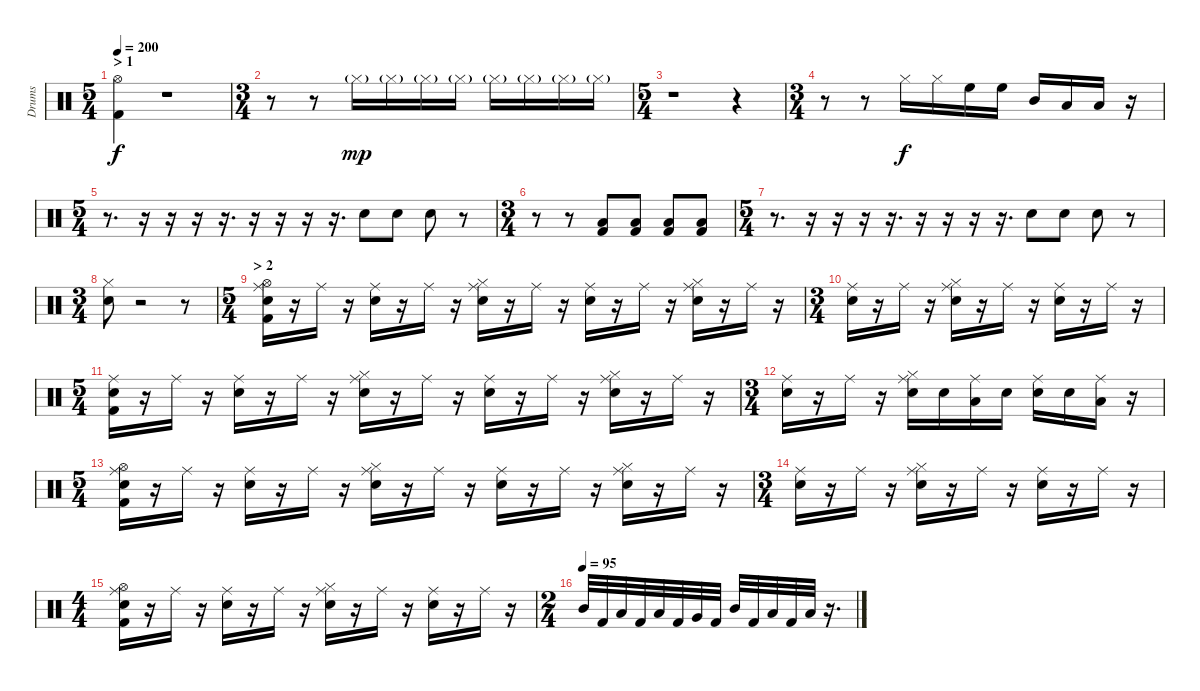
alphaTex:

\track ("Drums" "Drums") {instrument percussion}
\staff {score}
\articulation defaults
\ts (5 4)
\section ("" "> 1")
\tempo 200
\clef neutral
\ks c
("Hi-Hat (open)" "Kick (hit) 2").4{dy f} r.1 |
\ts (3 4)
r.8 r.8 "Hi-Hat (closed)"{g}.16{dy mp} "Hi-Hat (closed)"{g}.16 "Hi-Hat (closed)"{g}.16 "Hi-Hat (closed)"{g}.16 "Hi-Hat (closed)"{g}.16 "Hi-Hat (closed)"{g}.16 "Hi-Hat (closed)"{g}.16 "Hi-Hat (closed)"{g}.16 |
\ts (5 4)
r.1 r.4 |
\ts (3 4)
r.8 r.8 "Hi-Hat (closed)".16{dy f} "Hi-Hat (closed)".16 "High Floor Tom (hit)".16 "High Floor Tom (hit)".16 "Mid Tom (hit)".16 "Low Tom (hit)".16 "Low Floor Tom (hit)".16 r.16 |
\ts (5 4)
r.8{d} r.16 r.16 r.16 r.16{d} r.16 r.16 r.16 r.16{d} "Electric Snare (hit)".8 "Electric Snare (hit)".8 "Electric Snare (hit)".8 r.8 |
\ts (3 4)
r.8 r.8 ("Low Tom (hit)" "Kick (hit) 2").8 ("Low Tom (hit)" "Kick (hit) 2").8 ("Low Tom (hit)" "Kick (hit) 2").8 ("Low Tom (hit)" "Kick (hit) 2").8 |
\ts (5 4)
r.8{d} r.16 r.16 r.16 r.16{d} r.16 r.16 r.16 r.16{d} "Snare (hit) 2".8 "Snare (hit) 2".8 "Snare (hit) 2".8 r.8 |
\ts (3 4)
("Snare (hit) 2" "Hi-Hat (closed)").8 r.2 r.8 |
\ts (5 4)
\section ("" "> 2")
("Snare (hit) 2" "Kick (hit) 2" "Hi-Hat (open)" "Ride (middle)").16 r.16 "Ride (middle)".16 r.16 ("Electric Snare (hit)" "Ride (middle)").16 r.16 "Ride (middle)".16 r.16 ("Snare (hit) 2" "Hi-Hat (closed)" "Ride (middle)").16 r.16 "Ride (middle)".16 r.16 ("Electric Snare (hit)" "Ride (middle)").16 r.16 "Ride (middle)".16 r.16 ("Snare (hit) 2" "Hi-Hat (closed)" "Ride (middle)").16 r.16 "Ride (middle)".16 r.16 |
\ts (3 4)
("Electric Snare (hit)" "Ride (middle)").16 r.16 "Ride (middle)".16 r.16 ("Snare (hit) 2" "Hi-Hat (closed)" "Ride (middle)").16 r.16 "Ride (middle)".16 r.16 ("Electric Snare (hit)" "Ride (middle)").16 r.16 "Ride (middle)".16 r.16 |
\ts (5 4)
("Snare (hit) 2" "Kick (hit) 2" "Ride (middle)").16 r.16 "Ride (middle)".16 r.16 ("Electric Snare (hit)" "Ride (middle)").16 r.16 "Ride (middle)".16 r.16 ("Snare (hit) 2" "Hi-Hat (closed)" "Ride (middle)").16 r.16 "Ride (middle)".16 r.16 ("Electric Snare (hit)" "Ride (middle)").16 r.16 "Ride (middle)".16 r.16 ("Snare (hit) 2" "Hi-Hat (closed)" "Ride (middle)").16 r.16 "Ride (middle)".16 r.16 |
\ts (3 4)
("Snare (hit) 2" "Ride (middle)").16 r.16 "Ride (middle)".16 r.16 ("Snare (hit) 2" "Hi-Hat (closed)" "Ride (middle)").16 "Snare (hit) 2".16 ("Low Tom (hit)" "Ride (middle)").16 "Snare (hit) 2".16 ("Snare (hit) 2" "Ride (middle)").16 "Snare (hit) 2".16 ("Low Tom (hit)" "Ride (middle)").16 r.16 |
\ts (5 4)
("Snare (hit) 2" "Kick (hit) 2" "Hi-Hat (open)" "Ride (middle)").16 r.16 "Ride (middle)".16 r.16 ("Electric Snare (hit)" "Ride (middle)").16 r.16 "Ride (middle)".16 r.16 ("Snare (hit) 2" "Hi-Hat (closed)" "Ride (middle)").16 r.16 "Ride (middle)".16 r.16 ("Electric Snare (hit)" "Ride (middle)").16 r.16 "Ride (middle)".16 r.16 ("Snare (hit) 2" "Hi-Hat (closed)" "Ride (middle)").16 r.16 "Ride (middle)".16 r.16 |
\ts (3 4)
("Electric Snare (hit)" "Ride (middle)").16 r.16 "Ride (middle)".16 r.16 ("Snare (hit) 2" "Hi-Hat (closed)" "Ride (middle)").16 r.16 "Ride (middle)".16 r.16 ("Electric Snare (hit)" "Ride (middle)").16 r.16 "Ride (middle)".16 r.16 |
\ts (4 4)
("Snare (hit) 2" "Kick (hit) 2" "Hi-Hat (open)" "Ride (middle)").16 r.16 "Ride (middle)".16 r.16 ("Electric Snare (hit)" "Ride (middle)").16 r.16 "Ride (middle)".16 r.16 ("Snare (hit) 2" "Hi-Hat (closed)" "Ride (middle)").16 r.16 "Ride (middle)".16 r.16 ("Electric Snare (hit)" "Ride (middle)").16 r.16 "Ride (middle)".16 r.16 |
\ts (2 4)
\tempo (95)
"Mid Tom (hit)".32 "Kick (hit) 2".32 "Low Tom (hit)".32 "Kick (hit) 2".32 "Low Floor Tom (hit)".32 "Kick (hit) 2".32 "Very Low Tom (hit)".32 "Kick (hit) 2".32 "Mid Tom (hit)".32 "Kick (hit) 2".32 "Low Tom (hit)".32 "Kick (hit) 2".32 "Low Floor Tom (hit)".32 r.16{d}
